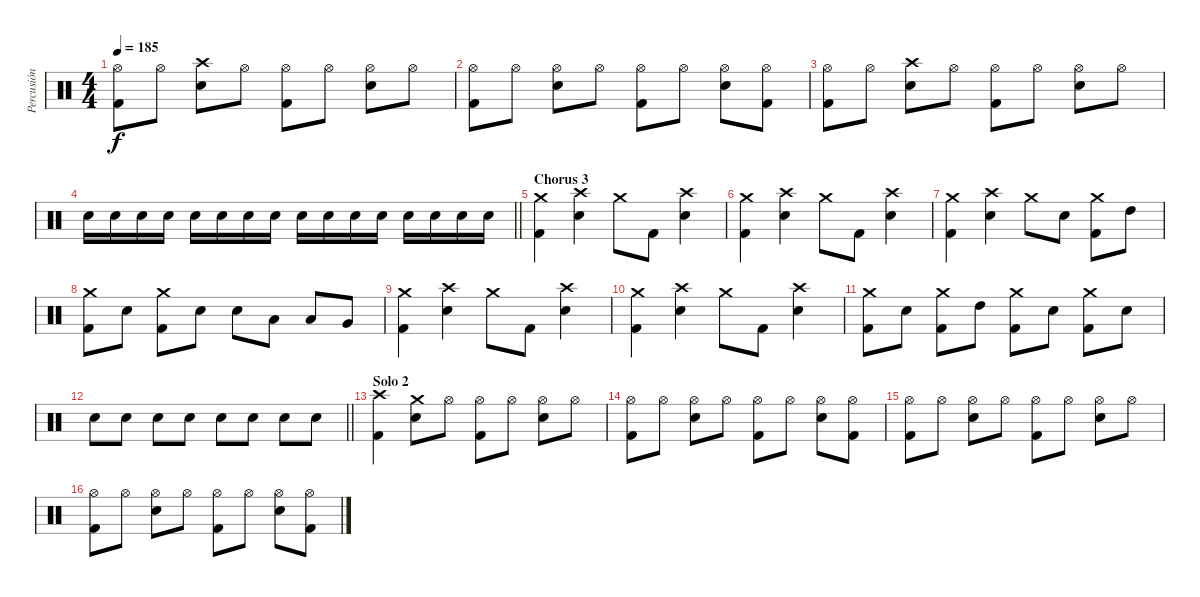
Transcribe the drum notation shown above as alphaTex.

\track ("Percusión" "Percusión") {instrument percussion}
\staff {score}
\articulation defaults
\ts (4 4)
\tempo 185
\clef neutral
\ks c
("Hi-Hat (open)" "Kick (hit) 2").8{dy f} "Hi-Hat (open)".8 ("Crash high (hit)" "Electric Snare (hit)").8 "Hi-Hat (open)".8 ("Hi-Hat (open)" "Kick (hit) 2").8 "Hi-Hat (open)".8 ("Hi-Hat (open)" "Electric Snare (hit)").8 "Hi-Hat (open)".8 |
("Hi-Hat (open)" "Kick (hit) 2").8 "Hi-Hat (open)".8 ("Hi-Hat (open)" "Electric Snare (hit)").8 "Hi-Hat (open)".8 ("Hi-Hat (open)" "Kick (hit) 2").8 "Hi-Hat (open)".8 ("Hi-Hat (open)" "Electric Snare (hit)").8 ("Hi-Hat (open)" "Kick (hit) 2").8 |
("Hi-Hat (open)" "Kick (hit) 2").8 "Hi-Hat (open)".8 ("Crash high (hit)" "Electric Snare (hit)").8 "Hi-Hat (open)".8 ("Hi-Hat (open)" "Kick (hit) 2").8 "Hi-Hat (open)".8 ("Hi-Hat (open)" "Electric Snare (hit)").8 "Hi-Hat (open)".8 |
\barLineRight lightlight "Electric Snare (hit)".16 "Electric Snare (hit)".16 "Electric Snare (hit)".16 "Electric Snare (hit)".16 "Electric Snare (hit)".16 "Electric Snare (hit)".16 "Electric Snare (hit)".16 "Electric Snare (hit)".16 "Electric Snare (hit)".16 "Electric Snare (hit)".16 "Electric Snare (hit)".16 "Electric Snare (hit)".16 "Electric Snare (hit)".16 "Electric Snare (hit)".16 "Electric Snare (hit)".16 "Electric Snare (hit)".16
|
\section ("" "Chorus 3")
("Crash medium (hit)" "Kick (hit) 2").4 ("Crash high (hit)" "Electric Snare (hit)").4 "Crash medium (hit)".8 "Kick (hit) 2".8 ("Crash high (hit)" "Electric Snare (hit)").4 |
("Crash medium (hit)" "Kick (hit) 2").4 ("Crash high (hit)" "Electric Snare (hit)").4 "Crash medium (hit)".8 "Kick (hit) 2".8 ("Crash high (hit)" "Electric Snare (hit)").4 |
("Crash medium (hit)" "Kick (hit) 2").4 ("Crash high (hit)" "Electric Snare (hit)").4 "Crash medium (hit)".8 "Electric Snare (hit)".8 ("Crash medium (hit)" "Kick (hit) 2").8 "High Tom (hit)".8 |
("Crash medium (hit)" "Kick (hit) 2").8 "Electric Snare (hit)".8 ("Crash medium (hit)" "Kick (hit) 2").8 "Electric Snare (hit)".8 "Electric Snare (hit)".8 "Low Tom (hit)".8 "Low Tom (hit)".8 "Very Low Tom (hit)".8 |
("Crash medium (hit)" "Kick (hit) 2").4 ("Crash high (hit)" "Electric Snare (hit)").4 "Crash medium (hit)".8 "Kick (hit) 2".8 ("Crash high (hit)" "Electric Snare (hit)").4 |
("Crash medium (hit)" "Kick (hit) 2").4 ("Crash high (hit)" "Electric Snare (hit)").4 "Crash medium (hit)".8 "Kick (hit) 2".8 ("Crash high (hit)" "Electric Snare (hit)").4 |
("Crash medium (hit)" "Kick (hit) 2").8 "Electric Snare (hit)".8 ("Crash medium (hit)" "Kick (hit) 2").8 "High Tom (hit)".8 ("Crash medium (hit)" "Kick (hit) 2").8 "Electric Snare (hit)".8 ("Crash medium (hit)" "Kick (hit) 2").8 "Electric Snare (hit)".8 |
\barLineRight lightlight "Electric Snare (hit)".8 "Electric Snare (hit)".8 "Electric Snare (hit)".8 "Electric Snare (hit)".8 "Electric Snare (hit)".8 "Electric Snare (hit)".8 "Electric Snare (hit)".8 "Electric Snare (hit)".8
|
\section ("" "Solo 2")
("Crash high (hit)" "Kick (hit) 2").4 ("Crash medium (hit)" "Electric Snare (hit)").8 "Hi-Hat (open)".8 ("Hi-Hat (open)" "Kick (hit) 2").8 "Hi-Hat (open)".8 ("Hi-Hat (open)" "Electric Snare (hit)").8 "Hi-Hat (open)".8 |
("Hi-Hat (open)" "Kick (hit) 2").8 "Hi-Hat (open)".8 ("Hi-Hat (open)" "Electric Snare (hit)").8 "Hi-Hat (open)".8 ("Hi-Hat (open)" "Kick (hit) 2").8 "Hi-Hat (open)".8 ("Hi-Hat (open)" "Electric Snare (hit)").8 ("Hi-Hat (open)" "Kick (hit) 2").8 |
("Hi-Hat (open)" "Kick (hit) 2").8 "Hi-Hat (open)".8 ("Hi-Hat (open)" "Electric Snare (hit)").8 "Hi-Hat (open)".8 ("Hi-Hat (open)" "Kick (hit) 2").8 "Hi-Hat (open)".8 ("Hi-Hat (open)" "Electric Snare (hit)").8 "Hi-Hat (open)".8 |
("Hi-Hat (open)" "Kick (hit) 2").8 "Hi-Hat (open)".8 ("Hi-Hat (open)" "Electric Snare (hit)").8 "Hi-Hat (open)".8 ("Hi-Hat (open)" "Kick (hit) 2").8 "Hi-Hat (open)".8 ("Hi-Hat (open)" "Electric Snare (hit)").8 ("Hi-Hat (open)" "Kick (hit) 2").8
